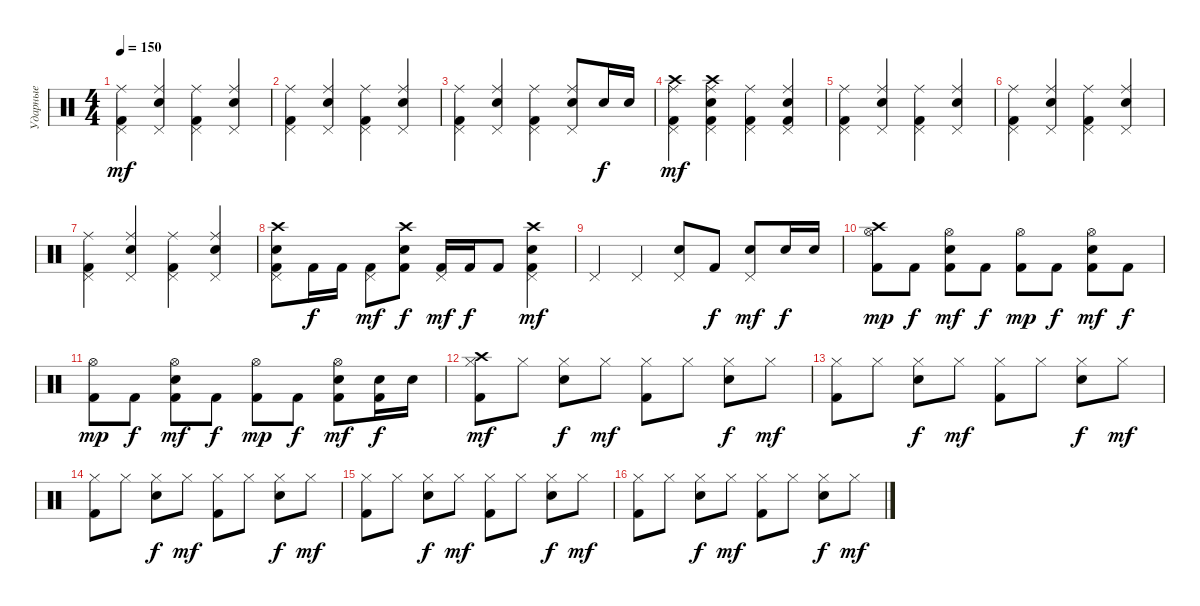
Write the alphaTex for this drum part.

\track ("Ударные" "Ударные") {instrument percussion}
\staff {score}
\articulation defaults
\ts (4 4)
\tempo 150
\clef neutral
\ks c
("Kick (hit) 2" "Pedal Hi-Hat (hit)" "Ride (middle)").4{dy mf} ("Snare (hit) 2" "Pedal Hi-Hat (hit)" "Ride (middle)").4 ("Kick (hit) 2" "Pedal Hi-Hat (hit)" "Ride (middle)").4 ("Snare (hit) 2" "Pedal Hi-Hat (hit)" "Ride (middle)").4 |
("Kick (hit) 2" "Pedal Hi-Hat (hit)" "Ride (middle)").4 ("Snare (hit) 2" "Pedal Hi-Hat (hit)" "Ride (middle)").4 ("Kick (hit) 2" "Pedal Hi-Hat (hit)" "Ride (middle)").4 ("Snare (hit) 2" "Pedal Hi-Hat (hit)" "Ride (middle)").4 |
("Kick (hit) 2" "Pedal Hi-Hat (hit)" "Ride (middle)").4 ("Snare (hit) 2" "Pedal Hi-Hat (hit)" "Ride (middle)").4 ("Kick (hit) 2" "Pedal Hi-Hat (hit)" "Ride (middle)").4 ("Snare (hit) 2" "Pedal Hi-Hat (hit)" "Ride (middle)").8 "Snare (hit) 2".16{dy f} "Snare (hit) 2".16 |
("Kick (hit) 2" "Crash high (hit)" "Pedal Hi-Hat (hit)" "Ride (middle)").4{dy mf} ("Kick (hit) 2" "Snare (hit) 2" "Crash high (hit)" "Pedal Hi-Hat (hit)" "Ride (middle)").4 ("Kick (hit) 2" "Pedal Hi-Hat (hit)" "Ride (middle)").4 ("Kick (hit) 2" "Snare (hit) 2" "Pedal Hi-Hat (hit)" "Ride (middle)").4 |
("Kick (hit) 2" "Pedal Hi-Hat (hit)" "Ride (middle)").4 ("Snare (hit) 2" "Pedal Hi-Hat (hit)" "Ride (middle)").4 ("Kick (hit) 2" "Pedal Hi-Hat (hit)" "Ride (middle)").4 ("Snare (hit) 2" "Pedal Hi-Hat (hit)" "Ride (middle)").4 |
("Kick (hit) 2" "Pedal Hi-Hat (hit)" "Ride (middle)").4 ("Snare (hit) 2" "Pedal Hi-Hat (hit)" "Ride (middle)").4 ("Kick (hit) 2" "Pedal Hi-Hat (hit)" "Ride (middle)").4 ("Snare (hit) 2" "Pedal Hi-Hat (hit)" "Ride (middle)").4 |
("Kick (hit) 2" "Pedal Hi-Hat (hit)" "Ride (middle)").4 ("Snare (hit) 2" "Pedal Hi-Hat (hit)" "Ride (middle)").4 ("Kick (hit) 2" "Pedal Hi-Hat (hit)" "Ride (middle)").4 ("Snare (hit) 2" "Pedal Hi-Hat (hit)" "Ride (middle)").4 |
("Kick (hit) 2" "Snare (hit) 2" "Crash high (hit)" "Pedal Hi-Hat (hit)").8 "Kick (hit) 2".16{dy f} "Kick (hit) 2".16 ("Kick (hit) 2" "Pedal Hi-Hat (hit)").8{dy mf} ("Kick (hit) 2" "Snare (hit) 2" "Crash high (hit)").8{dy f} ("Kick (hit) 2" "Pedal Hi-Hat (hit)").16{dy mf} "Kick (hit) 2".16{dy f} "Kick (hit) 2".8 ("Kick (hit) 2" "Snare (hit) 2" "Crash high (hit)" "Pedal Hi-Hat (hit)").4{dy mf} |
"Pedal Hi-Hat (hit)".4 "Pedal Hi-Hat (hit)".4 ("Snare (hit) 2" "Pedal Hi-Hat (hit)").8 "Kick (hit) 2".8{dy f} ("Snare (hit) 2" "Pedal Hi-Hat (hit)").8{dy mf} "Snare (hit) 2".16{dy f} "Snare (hit) 2".16 |
("Kick (hit) 2" "Crash high (hit)" "Hi-Hat (open)").8{dy mp} "Kick (hit) 2".8{dy f} ("Kick (hit) 2" "Snare (hit) 2" "Hi-Hat (open)").8{dy mf} "Kick (hit) 2".8{dy f} ("Kick (hit) 2" "Hi-Hat (open)").8{dy mp} "Kick (hit) 2".8{dy f} ("Kick (hit) 2" "Snare (hit) 2" "Hi-Hat (open)").8{dy mf} "Kick (hit) 2".8{dy f} |
("Kick (hit) 2" "Hi-Hat (open)").8{dy mp} "Kick (hit) 2".8{dy f} ("Kick (hit) 2" "Snare (hit) 2" "Hi-Hat (open)").8{dy mf} "Kick (hit) 2".8{dy f} ("Kick (hit) 2" "Hi-Hat (open)").8{dy mp} "Kick (hit) 2".8{dy f} ("Kick (hit) 2" "Snare (hit) 2" "Hi-Hat (open)").8{dy mf} ("Kick (hit) 2" "Snare (hit) 2").16{dy f} "Snare (hit) 2".16 |
("Kick (hit) 2" "Crash high (hit)" "Hi-Hat (closed)").8{dy mf} "Hi-Hat (closed)".8 ("Snare (hit) 2" "Hi-Hat (closed)").8{dy f} "Hi-Hat (closed)".8{dy mf} ("Kick (hit) 2" "Hi-Hat (closed)").8 "Hi-Hat (closed)".8 ("Snare (hit) 2" "Hi-Hat (closed)").8{dy f} "Hi-Hat (closed)".8{dy mf} |
("Kick (hit) 2" "Hi-Hat (closed)").8 "Hi-Hat (closed)".8 ("Snare (hit) 2" "Hi-Hat (closed)").8{dy f} "Hi-Hat (closed)".8{dy mf} ("Kick (hit) 2" "Hi-Hat (closed)").8 "Hi-Hat (closed)".8 ("Snare (hit) 2" "Hi-Hat (closed)").8{dy f} "Hi-Hat (closed)".8{dy mf} |
("Kick (hit) 2" "Hi-Hat (closed)").8 "Hi-Hat (closed)".8 ("Snare (hit) 2" "Hi-Hat (closed)").8{dy f} "Hi-Hat (closed)".8{dy mf} ("Kick (hit) 2" "Hi-Hat (closed)").8 "Hi-Hat (closed)".8 ("Snare (hit) 2" "Hi-Hat (closed)").8{dy f} "Hi-Hat (closed)".8{dy mf} |
("Kick (hit) 2" "Hi-Hat (closed)").8 "Hi-Hat (closed)".8 ("Snare (hit) 2" "Hi-Hat (closed)").8{dy f} "Hi-Hat (closed)".8{dy mf} ("Kick (hit) 2" "Hi-Hat (closed)").8 "Hi-Hat (closed)".8 ("Snare (hit) 2" "Hi-Hat (closed)").8{dy f} "Hi-Hat (closed)".8{dy mf} |
("Kick (hit) 2" "Hi-Hat (closed)").8 "Hi-Hat (closed)".8 ("Snare (hit) 2" "Hi-Hat (closed)").8{dy f} "Hi-Hat (closed)".8{dy mf} ("Kick (hit) 2" "Hi-Hat (closed)").8 "Hi-Hat (closed)".8 ("Snare (hit) 2" "Hi-Hat (closed)").8{dy f} "Hi-Hat (closed)".8{dy mf}
